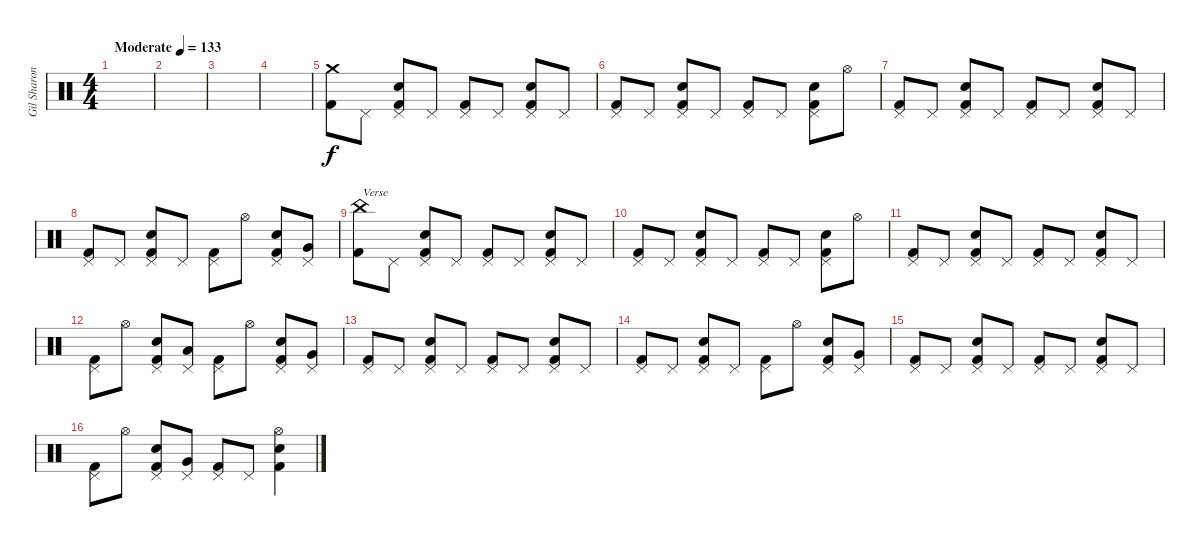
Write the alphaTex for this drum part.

\track ("Gil Sharone" "Gil Sharon") {instrument percussion}
\staff {score}
\articulation defaults
\ts (4 4)
\tempo (133 "Moderate")
\clef neutral
\ks c
|
|
|
|
("Crash medium (hit)" "Kick (hit) 2").8 "Pedal Hi-Hat (hit)".8 ("Pedal Hi-Hat (hit)" "Electric Snare (hit)" "Kick (hit) 2").8 "Pedal Hi-Hat (hit)".8 ("Pedal Hi-Hat (hit)" "Kick (hit) 2").8 "Pedal Hi-Hat (hit)".8 ("Pedal Hi-Hat (hit)" "Electric Snare (hit)" "Kick (hit) 2").8 "Pedal Hi-Hat (hit)".8 |
("Pedal Hi-Hat (hit)" "Kick (hit) 2").8 "Pedal Hi-Hat (hit)".8 ("Pedal Hi-Hat (hit)" "Electric Snare (hit)" "Kick (hit) 2").8 "Pedal Hi-Hat (hit)".8 ("Pedal Hi-Hat (hit)" "Kick (hit) 2").8 "Pedal Hi-Hat (hit)".8 ("Pedal Hi-Hat (hit)" "Electric Snare (hit)" "Kick (hit) 2").8 "Hi-Hat (open)".8 |
("Pedal Hi-Hat (hit)" "Kick (hit) 2").8 "Pedal Hi-Hat (hit)".8 ("Pedal Hi-Hat (hit)" "Electric Snare (hit)" "Kick (hit) 2").8 "Pedal Hi-Hat (hit)".8 ("Pedal Hi-Hat (hit)" "Kick (hit) 2").8 "Pedal Hi-Hat (hit)".8 ("Pedal Hi-Hat (hit)" "Electric Snare (hit)" "Kick (hit) 2").8 "Pedal Hi-Hat (hit)".8 |
("Pedal Hi-Hat (hit)" "Kick (hit) 2").8 "Pedal Hi-Hat (hit)".8 ("Pedal Hi-Hat (hit)" "Electric Snare (hit)" "Kick (hit) 2").8 "Pedal Hi-Hat (hit)".8 ("Pedal Hi-Hat (hit)" "Kick (hit) 2").8 "Hi-Hat (open)".8 ("Pedal Hi-Hat (hit)" "Electric Snare (hit)" "Kick (hit) 2").8 ("Pedal Hi-Hat (hit)" "Very Low Tom (hit)").8 |
("China (hit)" "Kick (hit) 2").8{txt "Verse"} "Pedal Hi-Hat (hit)".8 ("Pedal Hi-Hat (hit)" "Electric Snare (hit)" "Kick (hit) 2").8 "Pedal Hi-Hat (hit)".8 ("Pedal Hi-Hat (hit)" "Kick (hit) 2").8 "Pedal Hi-Hat (hit)".8 ("Pedal Hi-Hat (hit)" "Electric Snare (hit)" "Kick (hit) 2").8 "Pedal Hi-Hat (hit)".8 |
("Pedal Hi-Hat (hit)" "Kick (hit) 2").8 "Pedal Hi-Hat (hit)".8 ("Pedal Hi-Hat (hit)" "Electric Snare (hit)" "Kick (hit) 2").8 "Pedal Hi-Hat (hit)".8 ("Pedal Hi-Hat (hit)" "Kick (hit) 2").8 "Pedal Hi-Hat (hit)".8 ("Pedal Hi-Hat (hit)" "Electric Snare (hit)" "Kick (hit) 2").8 "Hi-Hat (open)".8 |
("Pedal Hi-Hat (hit)" "Kick (hit) 2").8 "Pedal Hi-Hat (hit)".8 ("Pedal Hi-Hat (hit)" "Electric Snare (hit)" "Kick (hit) 2").8 "Pedal Hi-Hat (hit)".8 ("Pedal Hi-Hat (hit)" "Kick (hit) 2").8 "Pedal Hi-Hat (hit)".8 ("Pedal Hi-Hat (hit)" "Electric Snare (hit)" "Kick (hit) 2").8 "Pedal Hi-Hat (hit)".8 |
("Pedal Hi-Hat (hit)" "Kick (hit) 2").8 "Hi-Hat (open)".8 ("Pedal Hi-Hat (hit)" "Electric Snare (hit)" "Kick (hit) 2").8 ("Pedal Hi-Hat (hit)" "Low Tom (hit)").8 ("Pedal Hi-Hat (hit)" "Kick (hit) 2").8 "Hi-Hat (open)".8 ("Pedal Hi-Hat (hit)" "Electric Snare (hit)" "Kick (hit) 2").8 ("Pedal Hi-Hat (hit)" "Very Low Tom (hit)").8 |
("Pedal Hi-Hat (hit)" "Kick (hit) 2").8 "Pedal Hi-Hat (hit)".8 ("Pedal Hi-Hat (hit)" "Electric Snare (hit)" "Kick (hit) 2").8 "Pedal Hi-Hat (hit)".8 ("Pedal Hi-Hat (hit)" "Kick (hit) 2").8 "Pedal Hi-Hat (hit)".8 ("Pedal Hi-Hat (hit)" "Electric Snare (hit)" "Kick (hit) 2").8 "Pedal Hi-Hat (hit)".8 |
("Pedal Hi-Hat (hit)" "Kick (hit) 2").8 "Pedal Hi-Hat (hit)".8 ("Pedal Hi-Hat (hit)" "Electric Snare (hit)" "Kick (hit) 2").8 "Pedal Hi-Hat (hit)".8 ("Pedal Hi-Hat (hit)" "Kick (hit) 2").8 "Hi-Hat (open)".8 ("Pedal Hi-Hat (hit)" "Electric Snare (hit)" "Kick (hit) 2").8 ("Pedal Hi-Hat (hit)" "Very Low Tom (hit)").8 |
("Pedal Hi-Hat (hit)" "Kick (hit) 2").8 "Pedal Hi-Hat (hit)".8 ("Pedal Hi-Hat (hit)" "Electric Snare (hit)" "Kick (hit) 2").8 "Pedal Hi-Hat (hit)".8 ("Pedal Hi-Hat (hit)" "Kick (hit) 2").8 "Pedal Hi-Hat (hit)".8 ("Pedal Hi-Hat (hit)" "Electric Snare (hit)" "Kick (hit) 2").8 "Pedal Hi-Hat (hit)".8 |
("Pedal Hi-Hat (hit)" "Kick (hit) 2").8 "Hi-Hat (open)".8 ("Pedal Hi-Hat (hit)" "Electric Snare (hit)" "Kick (hit) 2").8 ("Pedal Hi-Hat (hit)" "Very Low Tom (hit)").8 ("Pedal Hi-Hat (hit)" "Kick (hit) 2").8 "Pedal Hi-Hat (hit)".8 ("Hi-Hat (open)" "Electric Snare (hit)" "Kick (hit) 2").4
